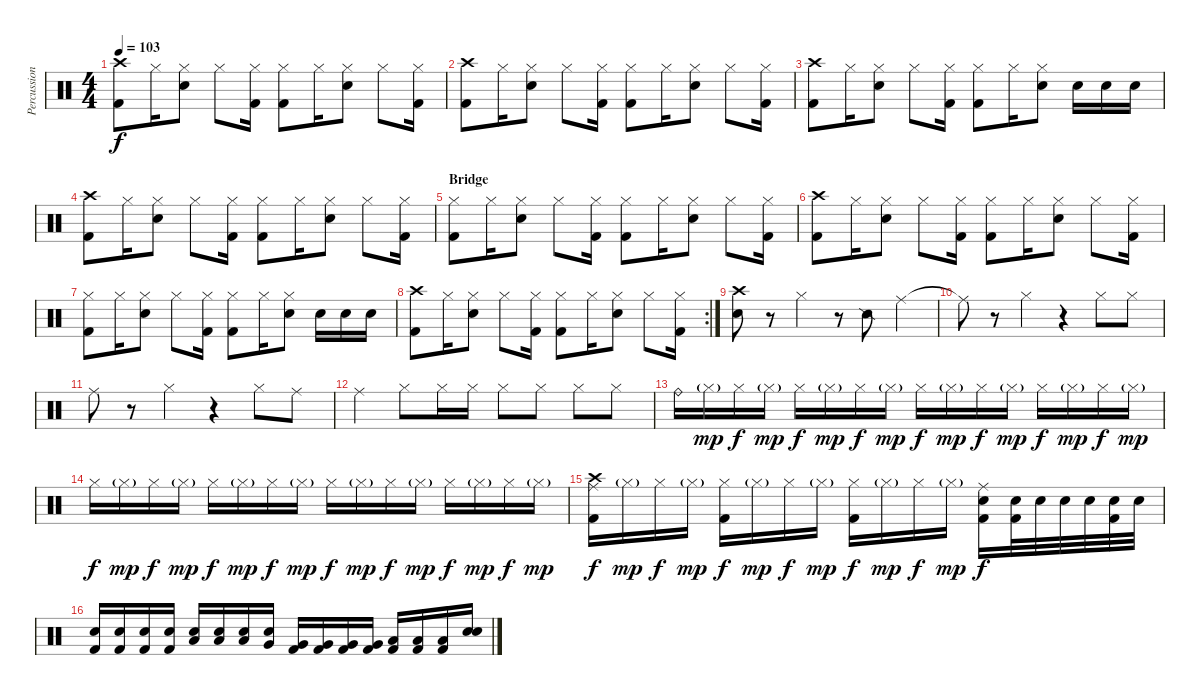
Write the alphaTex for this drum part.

\track ("Percussions" "Percussion") {instrument percussion}
\staff {score}
\articulation defaults
\ts (4 4)
\tempo 103
\clef neutral
\ks c
("Crash high (hit)" "Kick (hit) 2").8{dy f} "Hi-Hat (closed)".16 ("Hi-Hat (closed)" "Snare (hit) 2").8 "Hi-Hat (closed)".8 ("Hi-Hat (closed)" "Kick (hit) 2").16 ("Hi-Hat (closed)" "Kick (hit) 2").8 "Hi-Hat (closed)".16 ("Hi-Hat (closed)" "Snare (hit) 2").8 "Hi-Hat (closed)".8 ("Hi-Hat (closed)" "Kick (hit) 2").16 |
("Crash high (hit)" "Kick (hit) 2").8 "Hi-Hat (closed)".16 ("Hi-Hat (closed)" "Snare (hit) 2").8 "Hi-Hat (closed)".8 ("Hi-Hat (closed)" "Kick (hit) 2").16 ("Hi-Hat (closed)" "Kick (hit) 2").8 "Hi-Hat (closed)".16 ("Hi-Hat (closed)" "Snare (hit) 2").8 "Hi-Hat (closed)".8 ("Hi-Hat (closed)" "Kick (hit) 2").16 |
("Crash high (hit)" "Kick (hit) 2").8 "Hi-Hat (closed)".16 ("Hi-Hat (closed)" "Snare (hit) 2").8 "Hi-Hat (closed)".8 ("Hi-Hat (closed)" "Kick (hit) 2").16 ("Hi-Hat (closed)" "Kick (hit) 2").8 "Hi-Hat (closed)".16 ("Hi-Hat (closed)" "Snare (hit) 2").8 "Snare (hit) 2".16 "Snare (hit) 2".16 "Snare (hit) 2".16 |
("Crash high (hit)" "Kick (hit) 2").8 "Hi-Hat (closed)".16 ("Hi-Hat (closed)" "Snare (hit) 2").8 "Hi-Hat (closed)".8 ("Hi-Hat (closed)" "Kick (hit) 2").16 ("Hi-Hat (closed)" "Kick (hit) 2").8 "Hi-Hat (closed)".16 ("Hi-Hat (closed)" "Snare (hit) 2").8 "Hi-Hat (closed)".8 ("Hi-Hat (closed)" "Kick (hit) 2").16 |
\section ("" "Bridge")
("Hi-Hat (closed)" "Kick (hit) 2").8 "Hi-Hat (closed)".16 ("Hi-Hat (closed)" "Snare (hit) 2").8 "Hi-Hat (closed)".8 ("Hi-Hat (closed)" "Kick (hit) 2").16 ("Hi-Hat (closed)" "Kick (hit) 2").8 "Hi-Hat (closed)".16 ("Hi-Hat (closed)" "Snare (hit) 2").8 "Hi-Hat (closed)".8 ("Hi-Hat (closed)" "Kick (hit) 2").16 |
("Crash high (hit)" "Kick (hit) 2").8 "Hi-Hat (closed)".16 ("Hi-Hat (closed)" "Snare (hit) 2").8 "Hi-Hat (closed)".8 ("Hi-Hat (closed)" "Kick (hit) 2").16 ("Hi-Hat (closed)" "Kick (hit) 2").8 "Hi-Hat (closed)".16 ("Hi-Hat (closed)" "Snare (hit) 2").8 "Hi-Hat (closed)".8 ("Hi-Hat (closed)" "Kick (hit) 2").16 |
("Hi-Hat (closed)" "Kick (hit) 2").8 "Hi-Hat (closed)".16 ("Hi-Hat (closed)" "Snare (hit) 2").8 "Hi-Hat (closed)".8 ("Hi-Hat (closed)" "Kick (hit) 2").16 ("Hi-Hat (closed)" "Kick (hit) 2").8 "Hi-Hat (closed)".16 ("Hi-Hat (closed)" "Snare (hit) 2").8 "Snare (hit) 2".16 "Snare (hit) 2".16 "Snare (hit) 2".16 |
\rc 2
("Crash high (hit)" "Kick (hit) 2").8 "Hi-Hat (closed)".16 ("Hi-Hat (closed)" "Snare (hit) 2").8 "Hi-Hat (closed)".8 ("Hi-Hat (closed)" "Kick (hit) 2").16 ("Hi-Hat (closed)" "Kick (hit) 2").8 "Hi-Hat (closed)".16 ("Hi-Hat (closed)" "Snare (hit) 2").8 "Hi-Hat (closed)".8 ("Hi-Hat (closed)" "Kick (hit) 2").16 |
("Crash high (hit)" "Snare (hit) 2").8 r.8 "Hi-Hat (closed)".4 r.8 "Snare (side stick) 2".8 "Ride (middle)".4 |
"Ride (middle)"{t}.8 r.8 "Hi-Hat (closed)".4 r.4 "Hi-Hat (closed)".8 "Hi-Hat (closed)".8 |
"Ride (middle)".8 r.8 "Hi-Hat (closed)".4 r.4 "Hi-Hat (closed)".8 "Ride (middle)".8 |
"Ride (middle)".4 "Hi-Hat (closed)".8 "Hi-Hat (closed)".16 "Hi-Hat (closed)".16 "Hi-Hat (closed)".8 "Hi-Hat (closed)".8 "Hi-Hat (closed)".8 "Hi-Hat (closed)".8 |
"Ride (bell)".16 "Hi-Hat (closed)"{g}.16{dy mp} "Hi-Hat (closed)".16{dy f} "Hi-Hat (closed)"{g}.16{dy mp} "Hi-Hat (closed)".16{dy f} "Hi-Hat (closed)"{g}.16{dy mp} "Hi-Hat (closed)".16{dy f} "Hi-Hat (closed)"{g}.16{dy mp} "Hi-Hat (closed)".16{dy f} "Hi-Hat (closed)"{g}.16{dy mp} "Hi-Hat (closed)".16{dy f} "Hi-Hat (closed)"{g}.16{dy mp} "Hi-Hat (closed)".16{dy f} "Hi-Hat (closed)"{g}.16{dy mp} "Hi-Hat (closed)".16{dy f} "Hi-Hat (closed)"{g}.16{dy mp} |
"Hi-Hat (closed)".16{dy f} "Hi-Hat (closed)"{g}.16{dy mp} "Hi-Hat (closed)".16{dy f} "Hi-Hat (closed)"{g}.16{dy mp} "Hi-Hat (closed)".16{dy f} "Hi-Hat (closed)"{g}.16{dy mp} "Hi-Hat (closed)".16{dy f} "Hi-Hat (closed)"{g}.16{dy mp} "Hi-Hat (closed)".16{dy f} "Hi-Hat (closed)"{g}.16{dy mp} "Hi-Hat (closed)".16{dy f} "Hi-Hat (closed)"{g}.16{dy mp} "Hi-Hat (closed)".16{dy f} "Hi-Hat (closed)"{g}.16{dy mp} "Hi-Hat (closed)".16{dy f} "Hi-Hat (closed)"{g}.16{dy mp} |
("Crash high (hit)" "Ride (middle)" "Kick (hit) 2").16{dy f} "Hi-Hat (closed)"{g}.16{dy mp} "Hi-Hat (closed)".16{dy f} "Hi-Hat (closed)"{g}.16{dy mp} ("Hi-Hat (closed)" "Kick (hit) 2").16{dy f} "Hi-Hat (closed)"{g}.16{dy mp} "Hi-Hat (closed)".16{dy f} "Hi-Hat (closed)"{g}.16{dy mp} ("Hi-Hat (closed)" "Kick (hit) 2").16{dy f} "Hi-Hat (closed)"{g}.16{dy mp} "Hi-Hat (closed)".16{dy f} "Hi-Hat (closed)"{g}.16{dy mp} ("Snare (hit) 2" "Ride (middle)" "Kick (hit) 2").16{dy f} ("Snare (hit) 2" "Kick (hit) 2").32 "Snare (hit) 2".32 "Snare (hit) 2".32 "Snare (hit) 2".32 ("Snare (hit) 2" "Kick (hit) 2").32 "Snare (hit) 2".32 |
("Electric Snare (hit)" "Kick (hit) 2").16 ("Electric Snare (hit)" "Kick (hit) 2").16 ("Electric Snare (hit)" "Kick (hit) 2").16 ("Electric Snare (hit)" "Kick (hit) 2").16 ("Low Tom (hit)" "Snare (hit) 2").16 ("Low Tom (hit)" "Snare (hit) 2").16 ("Low Tom (hit)" "Snare (hit) 2").16 ("Very Low Tom (hit)" "Snare (hit) 2").16 ("Very Low Tom (hit)" "Kick (hit) 2").16 ("Very Low Tom (hit)" "Kick (hit) 2").16 ("Very Low Tom (hit)" "Kick (hit) 2").16 ("Very Low Tom (hit)" "Kick (hit) 2").16 ("Low Floor Tom (hit)" "Kick (hit) 2").16 ("Low Floor Tom (hit)" "Kick (hit) 2").16 ("Low Floor Tom (hit)" "Kick (hit) 2").16 ("Electric Snare (hit)" "Snare (hit) 2").16
